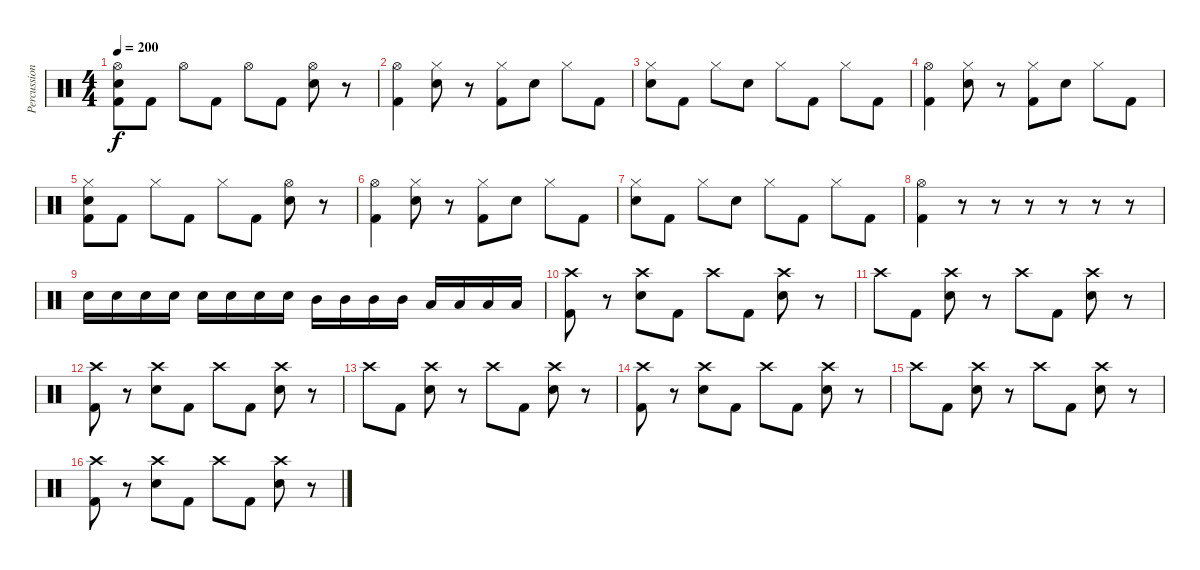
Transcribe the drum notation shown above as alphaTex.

\track ("Percussion" "Percussion") {instrument percussion}
\staff {score}
\articulation defaults
\ts (4 4)
\tempo 200
\clef neutral
\ks c
("Hi-Hat (open)" "Electric Snare (hit)" "Kick (hit) 2").8{dy f} "Kick (hit) 2".8 "Hi-Hat (open)".8 "Kick (hit) 2".8 "Hi-Hat (open)".8 "Kick (hit) 2".8 ("Hi-Hat (open)" "Electric Snare (hit)").8 r.8 |
("Hi-Hat (open)" "Kick (hit) 2").4 ("Hi-Hat (closed)" "Electric Snare (hit)").8 r.8 ("Hi-Hat (closed)" "Kick (hit) 2").8 "Electric Snare (hit)".8 "Hi-Hat (closed)".8 "Kick (hit) 2".8 |
("Hi-Hat (closed)" "Electric Snare (hit)").8 "Kick (hit) 2".8 "Hi-Hat (closed)".8 "Electric Snare (hit)".8 "Hi-Hat (closed)".8 "Kick (hit) 2".8 "Hi-Hat (closed)".8 "Kick (hit) 2".8 |
("Hi-Hat (open)" "Kick (hit) 2").4 ("Hi-Hat (closed)" "Electric Snare (hit)").8 r.8 ("Hi-Hat (closed)" "Kick (hit) 2").8 "Electric Snare (hit)".8 "Hi-Hat (closed)".8 "Kick (hit) 2".8 |
("Hi-Hat (closed)" "Electric Snare (hit)" "Kick (hit) 2").8 "Kick (hit) 2".8 "Hi-Hat (closed)".8 "Kick (hit) 2".8 "Hi-Hat (closed)".8 "Kick (hit) 2".8 ("Hi-Hat (open)" "Electric Snare (hit)").8 r.8 |
("Hi-Hat (open)" "Kick (hit) 2").4 ("Hi-Hat (closed)" "Electric Snare (hit)").8 r.8 ("Hi-Hat (closed)" "Kick (hit) 2").8 "Electric Snare (hit)".8 "Hi-Hat (closed)".8 "Kick (hit) 2".8 |
("Hi-Hat (closed)" "Electric Snare (hit)").8 "Kick (hit) 2".8 "Hi-Hat (closed)".8 "Electric Snare (hit)".8 "Hi-Hat (closed)".8 "Kick (hit) 2".8 "Hi-Hat (closed)".8 "Kick (hit) 2".8 |
("Hi-Hat (open)" "Kick (hit) 2").4 r.8 r.8 r.8 r.8 r.8 r.8 |
"Electric Snare (hit)".16 "Electric Snare (hit)".16 "Electric Snare (hit)".16 "Electric Snare (hit)".16 "Electric Snare (hit)".16 "Electric Snare (hit)".16 "Electric Snare (hit)".16 "Electric Snare (hit)".16 "Mid Tom (hit)".16 "Mid Tom (hit)".16 "Mid Tom (hit)".16 "Mid Tom (hit)".16 "Low Tom (hit)".16 "Low Tom (hit)".16 "Low Tom (hit)".16 "Low Tom (hit)".16 |
("Crash high (hit)" "Kick (hit) 2").8 r.8 ("Crash high (hit)" "Electric Snare (hit)").8 "Kick (hit) 2".8 "Crash high (hit)".8 "Kick (hit) 2".8 ("Crash high (hit)" "Electric Snare (hit)").8 r.8 |
"Crash high (hit)".8 "Kick (hit) 2".8 ("Crash high (hit)" "Electric Snare (hit)").8 r.8 "Crash high (hit)".8 "Kick (hit) 2".8 ("Crash high (hit)" "Electric Snare (hit)").8 r.8 |
("Crash high (hit)" "Kick (hit) 2").8 r.8 ("Crash high (hit)" "Electric Snare (hit)").8 "Kick (hit) 2".8 "Crash high (hit)".8 "Kick (hit) 2".8 ("Crash high (hit)" "Electric Snare (hit)").8 r.8 |
"Crash high (hit)".8 "Kick (hit) 2".8 ("Crash high (hit)" "Electric Snare (hit)").8 r.8 "Crash high (hit)".8 "Kick (hit) 2".8 ("Crash high (hit)" "Electric Snare (hit)").8 r.8 |
("Crash high (hit)" "Kick (hit) 2").8 r.8 ("Crash high (hit)" "Electric Snare (hit)").8 "Kick (hit) 2".8 "Crash high (hit)".8 "Kick (hit) 2".8 ("Crash high (hit)" "Electric Snare (hit)").8 r.8 |
"Crash high (hit)".8 "Kick (hit) 2".8 ("Crash high (hit)" "Electric Snare (hit)").8 r.8 "Crash high (hit)".8 "Kick (hit) 2".8 ("Crash high (hit)" "Electric Snare (hit)").8 r.8 |
("Crash high (hit)" "Kick (hit) 2").8 r.8 ("Crash high (hit)" "Electric Snare (hit)").8 "Kick (hit) 2".8 "Crash high (hit)".8 "Kick (hit) 2".8 ("Crash high (hit)" "Electric Snare (hit)").8 r.8
